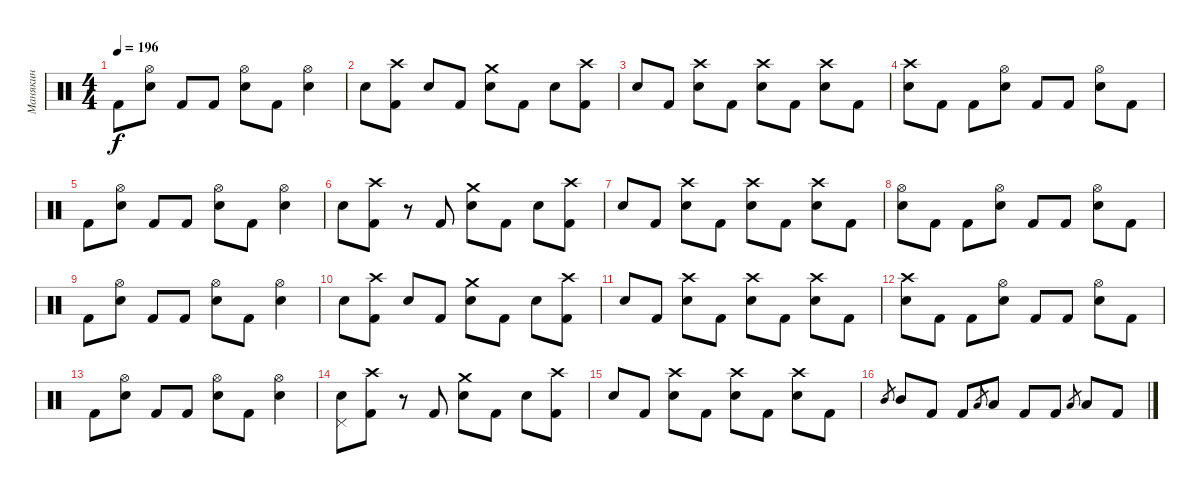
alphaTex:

\track ("Манякин" "Манякин") {instrument percussion}
\staff {score}
\articulation defaults
\ts (4 4)
\tempo 196
\clef neutral
\ks c "Kick (hit) 2".8{dy f}
("Hi-Hat (open)" "Electric Snare (hit)").8 "Kick (hit) 2".8 "Kick (hit) 2".8 ("Hi-Hat (open)" "Electric Snare (hit)").8 "Kick (hit) 2".8 ("Hi-Hat (open)" "Electric Snare (hit)").4 |
"Electric Snare (hit)".8 ("Crash high (hit)" "Kick (hit) 2").8 "Electric Snare (hit)".8 "Kick (hit) 2".8 ("Crash medium (hit)" "Electric Snare (hit)").8 "Kick (hit) 2".8 "Electric Snare (hit)".8 ("Crash high (hit)" "Kick (hit) 2").8 |
"Electric Snare (hit)".8 "Kick (hit) 2".8 ("Crash high (hit)" "Electric Snare (hit)").8 "Kick (hit) 2".8 ("Crash high (hit)" "Electric Snare (hit)").8 "Kick (hit) 2".8 ("Crash high (hit)" "Electric Snare (hit)").8 "Kick (hit) 2".8 |
("Crash high (hit)" "Electric Snare (hit)").8 "Kick (hit) 2".8 "Kick (hit) 2".8 ("Hi-Hat (open)" "Electric Snare (hit)").8 "Kick (hit) 2".8 "Kick (hit) 2".8 ("Hi-Hat (open)" "Electric Snare (hit)").8 "Kick (hit) 2".8 |
"Kick (hit) 2".8 ("Hi-Hat (open)" "Electric Snare (hit)").8 "Kick (hit) 2".8 "Kick (hit) 2".8 ("Hi-Hat (open)" "Electric Snare (hit)").8 "Kick (hit) 2".8 ("Hi-Hat (open)" "Electric Snare (hit)").4 |
"Electric Snare (hit)".8 ("Crash high (hit)" "Kick (hit) 2").8 r.8 "Kick (hit) 2".8 ("Crash medium (hit)" "Electric Snare (hit)").8 "Kick (hit) 2".8 "Electric Snare (hit)".8 ("Crash high (hit)" "Kick (hit) 2").8 |
"Electric Snare (hit)".8 "Kick (hit) 2".8 ("Crash high (hit)" "Electric Snare (hit)").8 "Kick (hit) 2".8 ("Crash high (hit)" "Electric Snare (hit)").8 "Kick (hit) 2".8 ("Crash high (hit)" "Electric Snare (hit)").8 "Kick (hit) 2".8 |
("Hi-Hat (open)" "Electric Snare (hit)").8 "Kick (hit) 2".8 "Kick (hit) 2".8 ("Hi-Hat (open)" "Electric Snare (hit)").8 "Kick (hit) 2".8 "Kick (hit) 2".8 ("Hi-Hat (open)" "Electric Snare (hit)").8 "Kick (hit) 2".8 |
"Kick (hit) 2".8 ("Hi-Hat (open)" "Electric Snare (hit)").8 "Kick (hit) 2".8 "Kick (hit) 2".8 ("Hi-Hat (open)" "Electric Snare (hit)").8 "Kick (hit) 2".8 ("Hi-Hat (open)" "Electric Snare (hit)").4 |
"Electric Snare (hit)".8 ("Crash high (hit)" "Kick (hit) 2").8 "Electric Snare (hit)".8 "Kick (hit) 2".8 ("Crash medium (hit)" "Electric Snare (hit)").8 "Kick (hit) 2".8 "Electric Snare (hit)".8 ("Crash high (hit)" "Kick (hit) 2").8 |
"Electric Snare (hit)".8 "Kick (hit) 2".8 ("Crash high (hit)" "Electric Snare (hit)").8 "Kick (hit) 2".8 ("Crash high (hit)" "Electric Snare (hit)").8 "Kick (hit) 2".8 ("Crash high (hit)" "Electric Snare (hit)").8 "Kick (hit) 2".8 |
("Crash high (hit)" "Electric Snare (hit)").8 "Kick (hit) 2".8 "Kick (hit) 2".8 ("Hi-Hat (open)" "Electric Snare (hit)").8 "Kick (hit) 2".8 "Kick (hit) 2".8 ("Hi-Hat (open)" "Electric Snare (hit)").8 "Kick (hit) 2".8 |
"Kick (hit) 2".8 ("Hi-Hat (open)" "Electric Snare (hit)").8 "Kick (hit) 2".8 "Kick (hit) 2".8 ("Hi-Hat (open)" "Electric Snare (hit)").8 "Kick (hit) 2".8 ("Hi-Hat (open)" "Electric Snare (hit)").4 |
("Electric Snare (hit)" "Pedal Hi-Hat (hit)").8 ("Crash high (hit)" "Kick (hit) 2").8 r.8 "Kick (hit) 2".8 ("Crash medium (hit)" "Electric Snare (hit)").8 "Kick (hit) 2".8 "Electric Snare (hit)".8 ("Crash high (hit)" "Kick (hit) 2").8 |
"Electric Snare (hit)".8 "Kick (hit) 2".8 ("Crash high (hit)" "Electric Snare (hit)").8 "Kick (hit) 2".8 ("Crash high (hit)" "Electric Snare (hit)").8 "Kick (hit) 2".8 ("Crash high (hit)" "Electric Snare (hit)").8 "Kick (hit) 2".8 |
"Mid Tom (hit)".8{gr} "Mid Tom (hit)".8 "Kick (hit) 2".8 "Kick (hit) 2".8 "Low Tom (hit)".8{gr} "Low Tom (hit)".8 "Kick (hit) 2".8 "Kick (hit) 2".8 "Low Tom (hit)".8{gr} "Low Tom (hit)".8 "Kick (hit) 2".8
